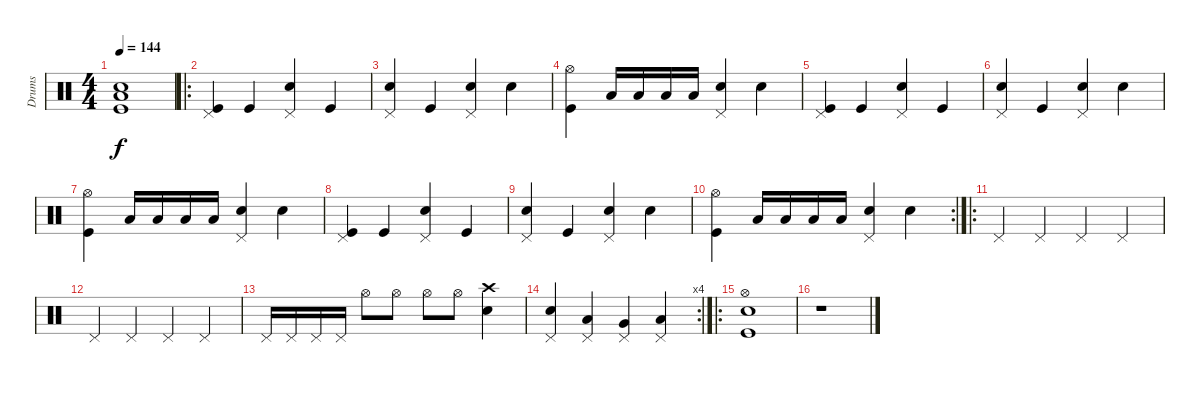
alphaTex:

\track ("Drums" "Drums") {instrument percussion}
\staff {score}
\articulation defaults
\ts (4 4)
\tempo 144
\clef neutral
\ks c
("Snare (hit) 2" "Low Floor Tom (hit)" "Kick (hit)").1{dy f} |
\ro
("Pedal Hi-Hat (hit)" "Kick (hit)").4 "Kick (hit)".4 ("Pedal Hi-Hat (hit)" "Snare (hit) 2").4 "Kick (hit)".4 |
("Pedal Hi-Hat (hit)" "Snare (hit) 2").4 "Kick (hit)".4 ("Pedal Hi-Hat (hit)" "Snare (hit) 2").4 "Snare (hit) 2".4 |
("Hi-Hat (open)" "Kick (hit)").4 "Low Tom (hit)".16 "Low Tom (hit)".16 "Low Tom (hit)".16 "Low Tom (hit)".16 ("Pedal Hi-Hat (hit)" "Snare (hit) 2").4 "Snare (hit) 2".4 |
("Pedal Hi-Hat (hit)" "Kick (hit)").4 "Kick (hit)".4 ("Pedal Hi-Hat (hit)" "Snare (hit) 2").4 "Kick (hit)".4 |
("Pedal Hi-Hat (hit)" "Snare (hit) 2").4 "Kick (hit)".4 ("Pedal Hi-Hat (hit)" "Snare (hit) 2").4 "Snare (hit) 2".4 |
("Hi-Hat (open)" "Kick (hit)").4 "Low Tom (hit)".16 "Low Tom (hit)".16 "Low Tom (hit)".16 "Low Tom (hit)".16 ("Pedal Hi-Hat (hit)" "Snare (hit) 2").4 "Snare (hit) 2".4 |
("Pedal Hi-Hat (hit)" "Kick (hit)").4 "Kick (hit)".4 ("Pedal Hi-Hat (hit)" "Snare (hit) 2").4 "Kick (hit)".4 |
("Pedal Hi-Hat (hit)" "Snare (hit) 2").4 "Kick (hit)".4 ("Pedal Hi-Hat (hit)" "Snare (hit) 2").4 "Snare (hit) 2".4 |
\rc 2
("Hi-Hat (open)" "Kick (hit)").4 "Low Tom (hit)".16 "Low Tom (hit)".16 "Low Tom (hit)".16 "Low Tom (hit)".16 ("Pedal Hi-Hat (hit)" "Snare (hit) 2").4 "Snare (hit) 2".4 |
\ro "Pedal Hi-Hat (hit)".4 "Pedal Hi-Hat (hit)".4 "Pedal Hi-Hat (hit)".4 "Pedal Hi-Hat (hit)".4
|
"Pedal Hi-Hat (hit)".4 "Pedal Hi-Hat (hit)".4 "Pedal Hi-Hat (hit)".4 "Pedal Hi-Hat (hit)".4 |
"Pedal Hi-Hat (hit)".16 "Pedal Hi-Hat (hit)".16 "Pedal Hi-Hat (hit)".16 "Pedal Hi-Hat (hit)".16 "Hi-Hat (open)".8 "Hi-Hat (open)".8 "Hi-Hat (open)".8 "Hi-Hat (open)".8 ("Crash high (hit)" "Snare (hit) 2").4 |
\rc 4
("Pedal Hi-Hat (hit)" "Snare (hit) 2").4 ("Pedal Hi-Hat (hit)" "Low Tom (hit)").4 ("Pedal Hi-Hat (hit)" "Very Low Tom (hit)").4 ("Pedal Hi-Hat (hit)" "Low Floor Tom (hit)").4 |
\ro
("Hi-Hat (open)" "Snare (hit) 2" "Kick (hit)").1 |
r.1
